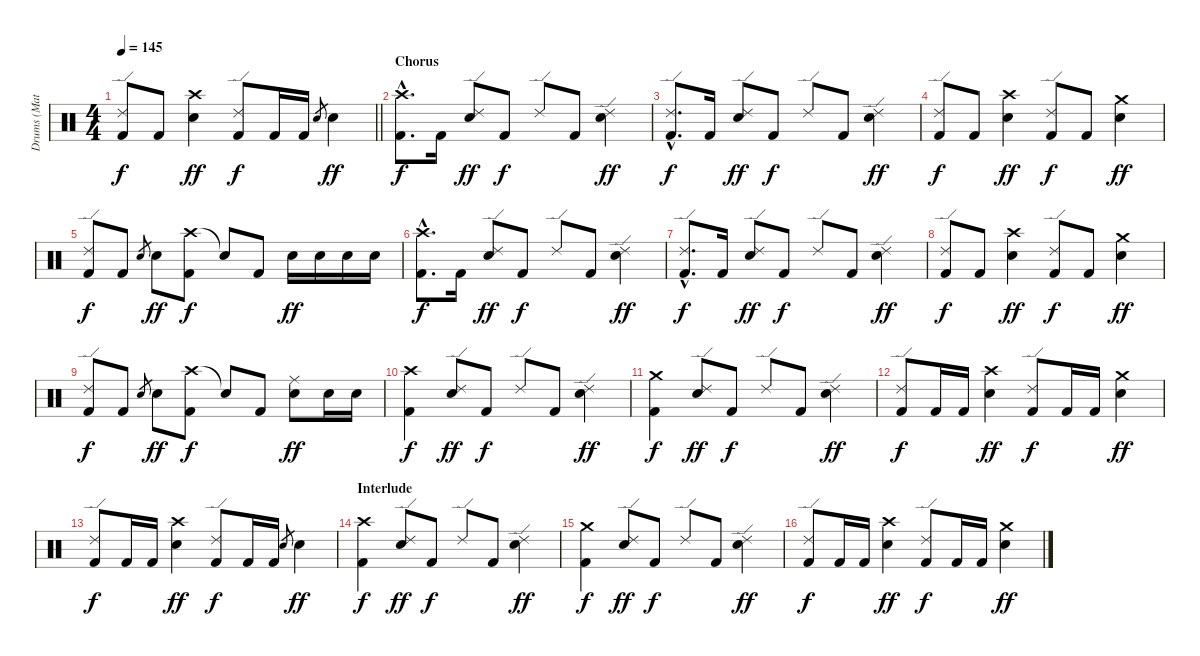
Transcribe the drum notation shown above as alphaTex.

\track ("Drums (Matt)" "Drums (Mat") {instrument percussion}
\staff {score}
\articulation defaults
\ts (4 4)
\tempo 145
\clef neutral
\barLineRight lightlight
\ks c
("Ride (edge) 2" "Kick (hit) 2").8{dy f} "Kick (hit) 2".8 ("Crash high (hit)" "Snare (hit) 2").4{dy ff} ("Ride (edge) 2" "Kick (hit) 2").8{dy f} "Kick (hit) 2".16 "Kick (hit) 2".16 "Snare (hit) 2".8{gr} "Snare (hit) 2".4{dy ff} |
\section ("" "Chorus")
("Crash high (hit)"{hac} "Kick (hit) 2"{hac}).8{d dy f} "Kick (hit) 2".16 ("Ride (edge) 2" "Snare (hit) 2").8{dy ff} "Kick (hit) 2".8{dy f} "Ride (edge) 2".8 "Kick (hit) 2".8 ("Ride (edge) 2" "Snare (hit) 2").4{dy ff} |
("Ride (edge) 2"{hac} "Kick (hit) 2"{hac}).8{d dy f} "Kick (hit) 2".16 ("Ride (edge) 2" "Snare (hit) 2").8{dy ff} "Kick (hit) 2".8{dy f} "Ride (edge) 2".8 "Kick (hit) 2".8 ("Ride (edge) 2" "Snare (hit) 2").4{dy ff} |
("Ride (edge) 2" "Kick (hit) 2").8{dy f} "Kick (hit) 2".8 ("Crash high (hit)" "Snare (hit) 2").4{dy ff} ("Ride (edge) 2" "Kick (hit) 2").8{dy f} "Kick (hit) 2".8 ("Crash medium (hit)" "Snare (hit) 2").4{dy ff} |
("Ride (edge) 2" "Kick (hit) 2").8{dy f} "Kick (hit) 2".8 "Snare (hit) 2".8{gr} "Snare (hit) 2".8{dy ff} ("Crash high (hit)" "Kick (hit) 2").8{dy f} "Snare (hit)"{t}.8 "Kick (hit) 2".8 "Snare (hit) 2".16{dy ff} "Snare (hit) 2".16 "Snare (hit) 2".16 "Snare (hit) 2".16 |
("Crash high (hit)"{hac} "Kick (hit) 2"{hac}).8{d dy f} "Kick (hit) 2".16 ("Ride (edge) 2" "Snare (hit) 2").8{dy ff} "Kick (hit) 2".8{dy f} "Ride (edge) 2".8 "Kick (hit) 2".8 ("Ride (edge) 2" "Snare (hit) 2").4{dy ff} |
("Ride (edge) 2"{hac} "Kick (hit) 2"{hac}).8{d dy f} "Kick (hit) 2".16 ("Ride (edge) 2" "Snare (hit) 2").8{dy ff} "Kick (hit) 2".8{dy f} "Ride (edge) 2".8 "Kick (hit) 2".8 ("Ride (edge) 2" "Snare (hit) 2").4{dy ff} |
("Ride (edge) 2" "Kick (hit) 2").8{dy f} "Kick (hit) 2".8 ("Crash high (hit)" "Snare (hit) 2").4{dy ff} ("Ride (edge) 2" "Kick (hit) 2").8{dy f} "Kick (hit) 2".8 ("Crash medium (hit)" "Snare (hit) 2").4{dy ff} |
("Ride (edge) 2" "Kick (hit) 2").8{dy f} "Kick (hit) 2".8 "Snare (hit) 2".8{gr} "Snare (hit) 2".8{dy ff} ("Crash high (hit)" "Kick (hit) 2").8{dy f} "Snare (hit)"{t}.8 "Kick (hit) 2".8 ("Ride (middle)" "Snare (hit) 2").8{dy ff} "Snare (hit) 2".16 "Snare (hit) 2".16 |
("Crash high (hit)" "Kick (hit) 2").4{dy f} ("Ride (edge) 2" "Snare (hit) 2").8{dy ff} "Kick (hit) 2".8{dy f} "Ride (edge) 2".8 "Kick (hit) 2".8 ("Ride (edge) 2" "Snare (hit) 2").4{dy ff} |
("Crash medium (hit)" "Kick (hit) 2").4{dy f} ("Ride (edge) 2" "Snare (hit) 2").8{dy ff} "Kick (hit) 2".8{dy f} "Ride (edge) 2".8 "Kick (hit) 2".8 ("Ride (edge) 2" "Snare (hit) 2").4{dy ff} |
("Ride (edge) 2" "Kick (hit) 2").8{dy f} "Kick (hit) 2".16 "Kick (hit) 2".16 ("Crash high (hit)" "Snare (hit) 2").4{dy ff} ("Ride (edge) 2" "Kick (hit) 2").8{dy f} "Kick (hit) 2".16 "Kick (hit) 2".16 ("Crash medium (hit)" "Snare (hit) 2").4{dy ff} |
("Ride (edge) 2" "Kick (hit) 2").8{dy f} "Kick (hit) 2".16 "Kick (hit) 2".16 ("Crash high (hit)" "Snare (hit) 2").4{dy ff} ("Ride (edge) 2" "Kick (hit) 2").8{dy f} "Kick (hit) 2".16 "Kick (hit) 2".16 "Snare (hit) 2".8{gr} "Snare (hit) 2".4{dy ff} |
\section ("" "Interlude")
("Crash high (hit)" "Kick (hit) 2").4{dy f} ("Ride (edge) 2" "Snare (hit) 2").8{dy ff} "Kick (hit) 2".8{dy f} "Ride (edge) 2".8 "Kick (hit) 2".8 ("Ride (edge) 2" "Snare (hit) 2").4{dy ff} |
("Crash medium (hit)" "Kick (hit) 2").4{dy f} ("Ride (edge) 2" "Snare (hit) 2").8{dy ff} "Kick (hit) 2".8{dy f} "Ride (edge) 2".8 "Kick (hit) 2".8 ("Ride (edge) 2" "Snare (hit) 2").4{dy ff} |
("Ride (edge) 2" "Kick (hit) 2").8{dy f} "Kick (hit) 2".16 "Kick (hit) 2".16 ("Crash high (hit)" "Snare (hit) 2").4{dy ff} ("Ride (edge) 2" "Kick (hit) 2").8{dy f} "Kick (hit) 2".16 "Kick (hit) 2".16 ("Crash medium (hit)" "Snare (hit) 2").4{dy ff}
